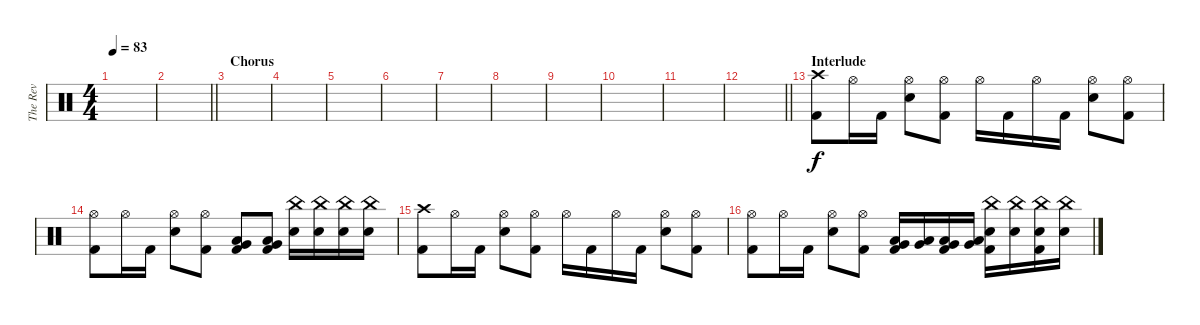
\track ("The Rev" "The Rev") {instrument percussion}
\staff {score}
\articulation defaults
\ts (4 4)
\tempo 83
\clef neutral
\ks c
|
\barLineRight lightlight
|
\section ("" "Chorus")
|
|
|
|
|
|
|
|
|
\barLineRight lightlight
|
\section ("" "Interlude")
("Crash high (hit)" "Kick (hit) 2").8 "Hi-Hat (open)".16 "Kick (hit) 2".16 ("Hi-Hat (open)" "Snare (hit) 2").8 ("Hi-Hat (open)" "Kick (hit) 2").8 "Hi-Hat (open)".16 "Kick (hit) 2".16 "Hi-Hat (open)".16 "Kick (hit) 2".16 ("Hi-Hat (open)" "Snare (hit) 2").8 ("Hi-Hat (open)" "Kick (hit) 2").8 |
("Hi-Hat (open)" "Kick (hit) 2").8 "Hi-Hat (open)".16 "Kick (hit) 2".16 ("Hi-Hat (open)" "Snare (hit) 2").8 ("Hi-Hat (open)" "Kick (hit) 2").8 ("Low Tom (hit)" "Very Low Tom (hit)" "Kick (hit) 2").8 ("Low Tom (hit)" "Very Low Tom (hit)" "Kick (hit) 2").8 ("China (hit)" "Snare (hit) 2").16 ("China (hit)" "Snare (hit) 2").16 ("China (hit)" "Snare (hit) 2").16 ("China (hit)" "Snare (hit) 2").16 |
("Crash high (hit)" "Kick (hit) 2").8 "Hi-Hat (open)".16 "Kick (hit) 2".16 ("Hi-Hat (open)" "Snare (hit) 2").8 ("Hi-Hat (open)" "Kick (hit) 2").8 "Hi-Hat (open)".16 "Kick (hit) 2".16 "Hi-Hat (open)".16 "Kick (hit) 2".16 ("Hi-Hat (open)" "Snare (hit) 2").8 ("Hi-Hat (open)" "Kick (hit) 2").8 |
("Hi-Hat (open)" "Kick (hit) 2").8 "Hi-Hat (open)".16 "Kick (hit) 2".16 ("Hi-Hat (open)" "Snare (hit) 2").8 ("Hi-Hat (open)" "Kick (hit) 2").8 ("Low Tom (hit)" "Very Low Tom (hit)" "Kick (hit) 2").16 ("Low Tom (hit)" "Very Low Tom (hit)").16 ("Low Tom (hit)" "Very Low Tom (hit)" "Kick (hit) 2").16 ("Low Tom (hit)" "Very Low Tom (hit)").16 ("China (hit)" "Snare (hit) 2" "Kick (hit) 2").16 ("China (hit)" "Snare (hit) 2").16 ("China (hit)" "Snare (hit) 2" "Kick (hit) 2").16 ("China (hit)" "Snare (hit) 2").16
